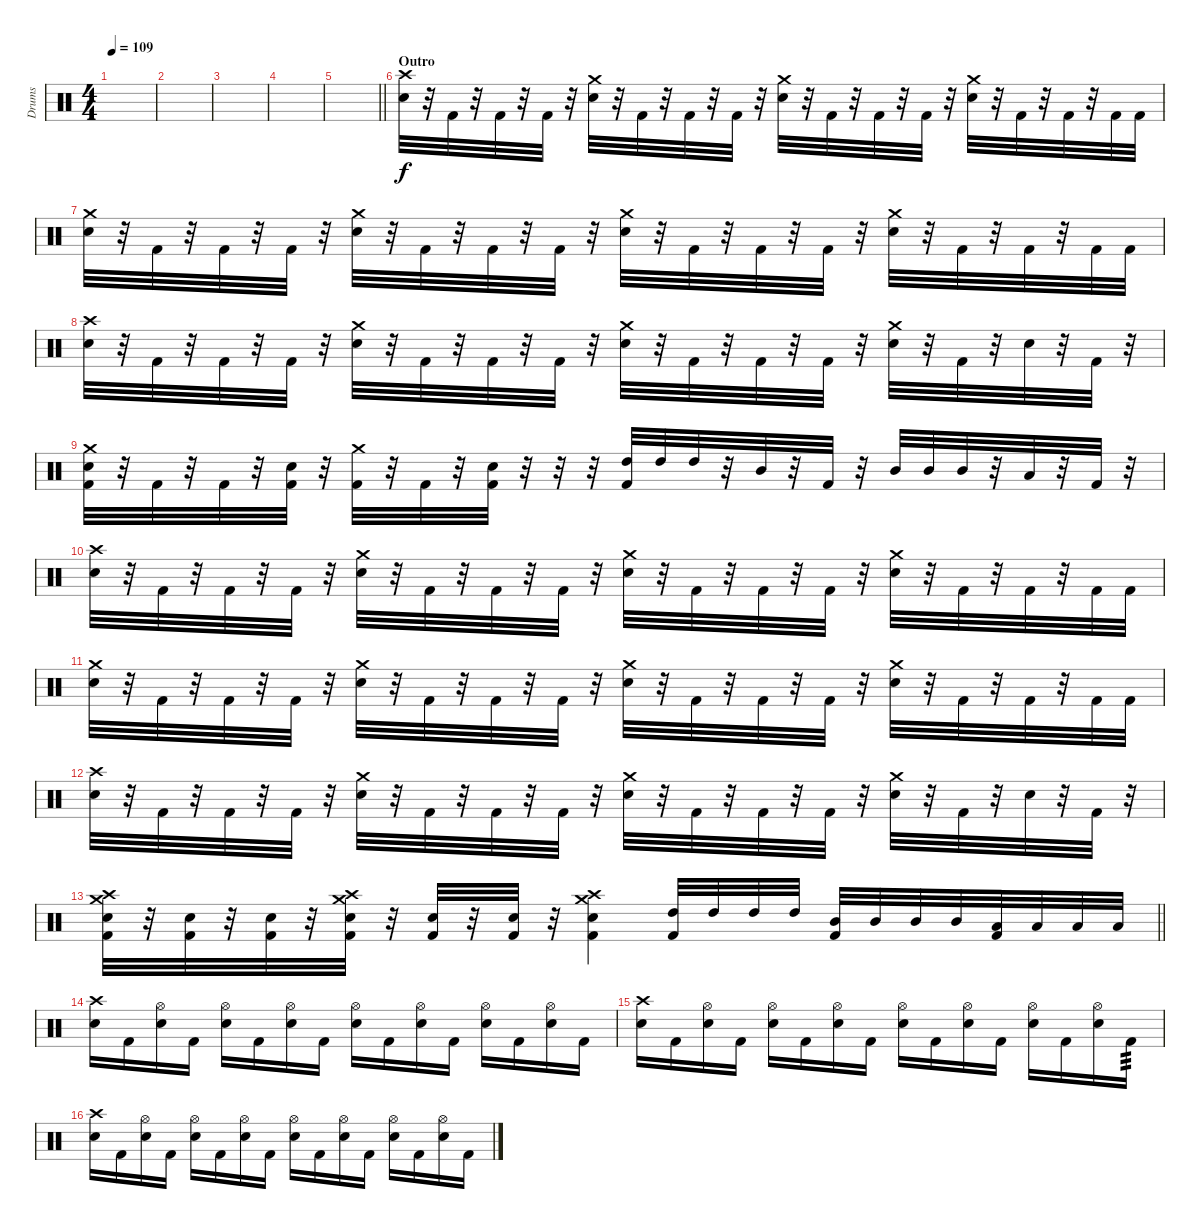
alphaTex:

\track ("Drums" "Drums") {instrument percussion}
\staff {score}
\articulation defaults
\ts (4 4)
\tempo 109
\clef neutral
\ks c
|
|
|
|
\barLineRight lightlight
|
\section ("" "Outro")
("Crash high (hit)" "Snare (hit) 2").32 r.32 "Kick (hit) 2".32 r.32 "Kick (hit) 2".32 r.32 "Kick (hit) 2".32 r.32 ("Crash medium (hit)" "Snare (hit) 2").32 r.32 "Kick (hit) 2".32 r.32 "Kick (hit) 2".32 r.32 "Kick (hit) 2".32 r.32 ("Crash medium (hit)" "Snare (hit) 2").32 r.32 "Kick (hit) 2".32 r.32 "Kick (hit) 2".32 r.32 "Kick (hit) 2".32 r.32 ("Crash medium (hit)" "Snare (hit) 2").32 r.32 "Kick (hit) 2".32 r.32 "Kick (hit) 2".32 r.32 "Kick (hit) 2".32 "Kick (hit) 2".32 |
("Crash medium (hit)" "Snare (hit) 2").32 r.32 "Kick (hit) 2".32 r.32 "Kick (hit) 2".32 r.32 "Kick (hit) 2".32 r.32 ("Crash medium (hit)" "Snare (hit) 2").32 r.32 "Kick (hit) 2".32 r.32 "Kick (hit) 2".32 r.32 "Kick (hit) 2".32 r.32 ("Crash medium (hit)" "Snare (hit) 2").32 r.32 "Kick (hit) 2".32 r.32 "Kick (hit) 2".32 r.32 "Kick (hit) 2".32 r.32 ("Crash medium (hit)" "Snare (hit) 2").32 r.32 "Kick (hit) 2".32 r.32 "Kick (hit) 2".32 r.32 "Kick (hit) 2".32 "Kick (hit) 2".32 |
("Crash high (hit)" "Snare (hit) 2").32 r.32 "Kick (hit) 2".32 r.32 "Kick (hit) 2".32 r.32 "Kick (hit) 2".32 r.32 ("Crash medium (hit)" "Snare (hit) 2").32 r.32 "Kick (hit) 2".32 r.32 "Kick (hit) 2".32 r.32 "Kick (hit) 2".32 r.32 ("Crash medium (hit)" "Snare (hit) 2").32 r.32 "Kick (hit) 2".32 r.32 "Kick (hit) 2".32 r.32 "Kick (hit) 2".32 r.32 ("Crash medium (hit)" "Snare (hit) 2").32 r.32 "Kick (hit) 2".32 r.32 "Snare (hit) 2".32 r.32 "Kick (hit) 2".32 r.32 |
("Crash medium (hit)" "Snare (hit) 2" "Kick (hit) 2").32 r.32 "Kick (hit) 2".32 r.32 "Kick (hit) 2".32 r.32 ("Snare (hit) 2" "Kick (hit) 2").32 r.32 ("Crash medium (hit)" "Kick (hit) 2").32 r.32 "Kick (hit) 2".32 r.32 ("Snare (hit) 2" "Kick (hit) 2").32 r.32 r.32 r.32 ("High Tom (hit)" "Kick (hit) 2").32 "High Tom (hit)".32 "High Tom (hit)".32 r.32 "Mid Tom (hit)".32 r.32 "Kick (hit) 2".32 r.32 "Mid Tom (hit)".32 "Mid Tom (hit)".32 "Mid Tom (hit)".32 r.32 "Low Tom (hit)".32 r.32 "Kick (hit) 2".32 r.32 |
("Crash high (hit)" "Snare (hit) 2").32 r.32 "Kick (hit) 2".32 r.32 "Kick (hit) 2".32 r.32 "Kick (hit) 2".32 r.32 ("Crash medium (hit)" "Snare (hit) 2").32 r.32 "Kick (hit) 2".32 r.32 "Kick (hit) 2".32 r.32 "Kick (hit) 2".32 r.32 ("Crash medium (hit)" "Snare (hit) 2").32 r.32 "Kick (hit) 2".32 r.32 "Kick (hit) 2".32 r.32 "Kick (hit) 2".32 r.32 ("Crash medium (hit)" "Snare (hit) 2").32 r.32 "Kick (hit) 2".32 r.32 "Kick (hit) 2".32 r.32 "Kick (hit) 2".32 "Kick (hit) 2".32 |
("Crash medium (hit)" "Snare (hit) 2").32 r.32 "Kick (hit) 2".32 r.32 "Kick (hit) 2".32 r.32 "Kick (hit) 2".32 r.32 ("Crash medium (hit)" "Snare (hit) 2").32 r.32 "Kick (hit) 2".32 r.32 "Kick (hit) 2".32 r.32 "Kick (hit) 2".32 r.32 ("Crash medium (hit)" "Snare (hit) 2").32 r.32 "Kick (hit) 2".32 r.32 "Kick (hit) 2".32 r.32 "Kick (hit) 2".32 r.32 ("Crash medium (hit)" "Snare (hit) 2").32 r.32 "Kick (hit) 2".32 r.32 "Kick (hit) 2".32 r.32 "Kick (hit) 2".32 "Kick (hit) 2".32 |
("Crash high (hit)" "Snare (hit) 2").32 r.32 "Kick (hit) 2".32 r.32 "Kick (hit) 2".32 r.32 "Kick (hit) 2".32 r.32 ("Crash medium (hit)" "Snare (hit) 2").32 r.32 "Kick (hit) 2".32 r.32 "Kick (hit) 2".32 r.32 "Kick (hit) 2".32 r.32 ("Crash medium (hit)" "Snare (hit) 2").32 r.32 "Kick (hit) 2".32 r.32 "Kick (hit) 2".32 r.32 "Kick (hit) 2".32 r.32 ("Crash medium (hit)" "Snare (hit) 2").32 r.32 "Kick (hit) 2".32 r.32 "Snare (hit) 2".32 r.32 "Kick (hit) 2".32 r.32 |
\barLineRight lightlight
("Crash medium (hit)" "Crash high (hit)" "Snare (hit) 2" "Kick (hit) 2").32 r.32 ("Snare (hit) 2" "Kick (hit) 2").32 r.32 ("Snare (hit) 2" "Kick (hit) 2").32 r.32 ("Crash medium (hit)" "Crash high (hit)" "Snare (hit) 2" "Kick (hit) 2").32 r.32 ("Snare (hit) 2" "Kick (hit) 2").32 r.32 ("Snare (hit) 2" "Kick (hit) 2").32 r.32 ("Crash medium (hit)" "Crash high (hit)" "Snare (hit) 2" "Kick (hit) 2").4 ("High Tom (hit)" "Kick (hit) 2").32 "High Tom (hit)".32 "High Tom (hit)".32 "High Tom (hit)".32 ("Mid Tom (hit)" "Kick (hit) 2").32 "Mid Tom (hit)".32 "Mid Tom (hit)".32 "Mid Tom (hit)".32 ("Low Tom (hit)" "Kick (hit) 2").32 "Low Tom (hit)".32 "Low Tom (hit)".32 "Low Tom (hit)".32 |
("Crash high (hit)" "Snare (hit) 2").16 "Kick (hit) 2".16 ("Hi-Hat (open)" "Snare (hit) 2").16 "Kick (hit) 2".16 ("Hi-Hat (open)" "Snare (hit) 2").16 "Kick (hit) 2".16 ("Hi-Hat (open)" "Snare (hit) 2").16 "Kick (hit) 2".16 ("Hi-Hat (open)" "Snare (hit) 2").16 "Kick (hit) 2".16 ("Hi-Hat (open)" "Snare (hit) 2").16 "Kick (hit) 2".16 ("Hi-Hat (open)" "Snare (hit) 2").16 "Kick (hit) 2".16 ("Hi-Hat (open)" "Snare (hit) 2").16 "Kick (hit) 2".16 |
("Crash high (hit)" "Snare (hit) 2").16 "Kick (hit) 2".16 ("Hi-Hat (open)" "Snare (hit) 2").16 "Kick (hit) 2".16 ("Hi-Hat (open)" "Snare (hit) 2").16 "Kick (hit) 2".16 ("Hi-Hat (open)" "Snare (hit) 2").16 "Kick (hit) 2".16 ("Hi-Hat (open)" "Snare (hit) 2").16 "Kick (hit) 2".16 ("Hi-Hat (open)" "Snare (hit) 2").16 "Kick (hit) 2".16 ("Hi-Hat (open)" "Snare (hit) 2").16 "Kick (hit) 2".16 ("Hi-Hat (open)" "Snare (hit) 2").16 "Kick (hit) 2".16{tp 3} |
("Crash high (hit)" "Snare (hit) 2").16 "Kick (hit) 2".16 ("Hi-Hat (open)" "Snare (hit) 2").16 "Kick (hit) 2".16 ("Hi-Hat (open)" "Snare (hit) 2").16 "Kick (hit) 2".16 ("Hi-Hat (open)" "Snare (hit) 2").16 "Kick (hit) 2".16 ("Hi-Hat (open)" "Snare (hit) 2").16 "Kick (hit) 2".16 ("Hi-Hat (open)" "Snare (hit) 2").16 "Kick (hit) 2".16 ("Hi-Hat (open)" "Snare (hit) 2").16 "Kick (hit) 2".16 ("Hi-Hat (open)" "Snare (hit) 2").16 "Kick (hit) 2".16
